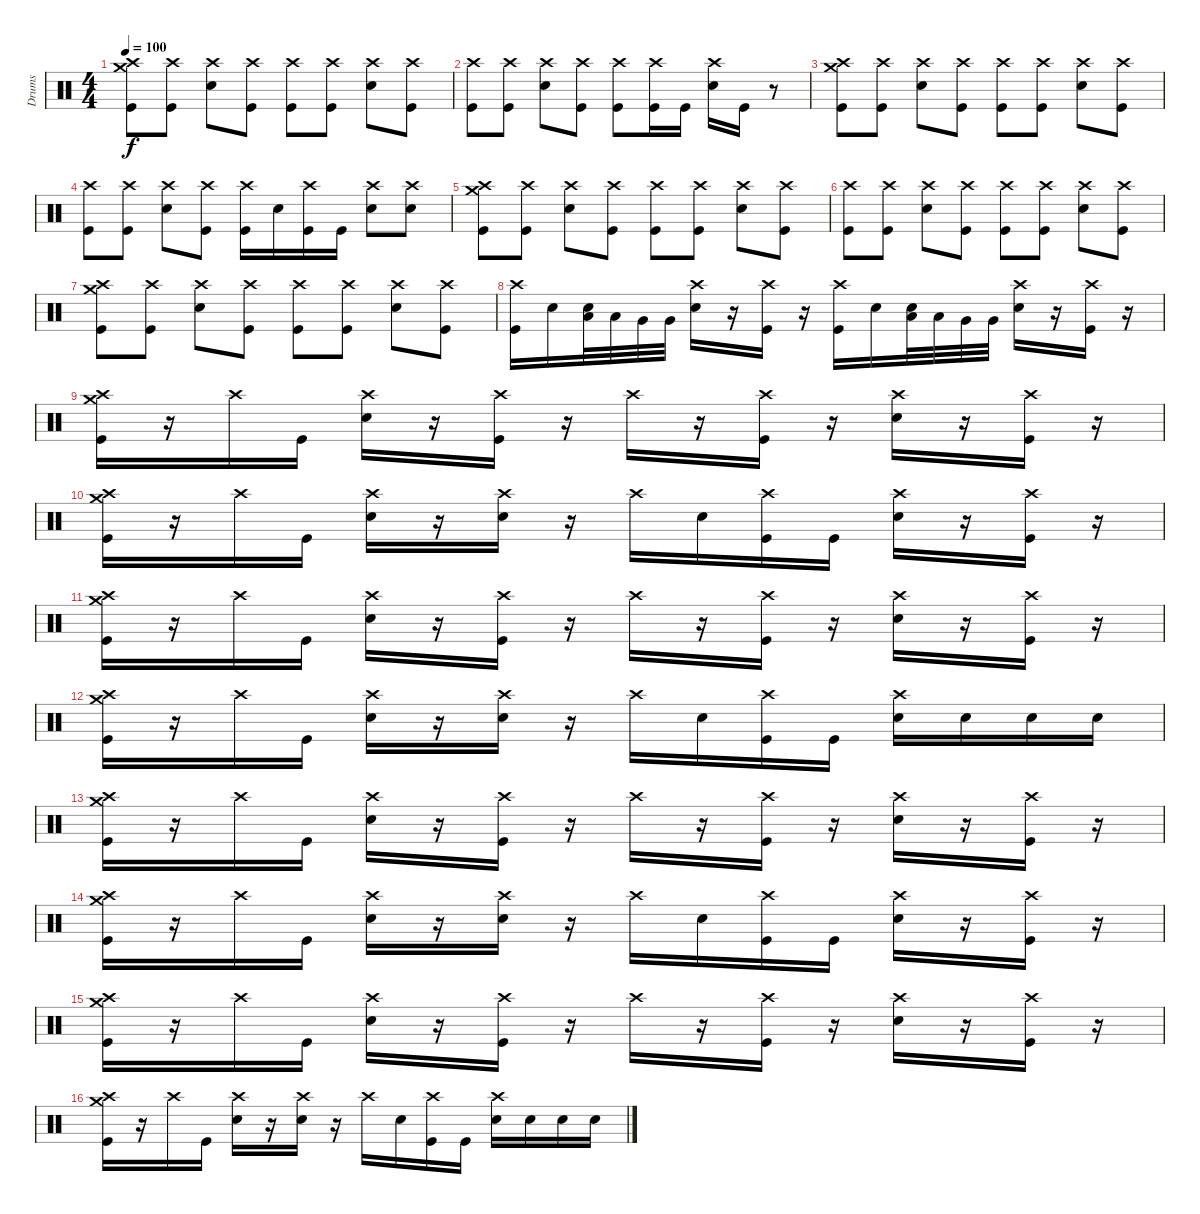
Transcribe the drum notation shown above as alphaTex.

\track ("Drums" "Drums") {instrument percussion}
\staff {score}
\articulation defaults
\ts (4 4)
\tempo 100
\clef neutral
\ks c
("Crash medium (hit)" "Crash high (hit)" "Kick (hit)").8{dy f} ("Crash high (hit)" "Kick (hit)").8 ("Crash high (hit)" "Snare (hit) 2").8 ("Crash high (hit)" "Kick (hit)").8 ("Crash high (hit)" "Kick (hit)").8 ("Crash high (hit)" "Kick (hit)").8 ("Crash high (hit)" "Snare (hit) 2").8 ("Crash high (hit)" "Kick (hit)").8 |
("Crash high (hit)" "Kick (hit)").8 ("Crash high (hit)" "Kick (hit)").8 ("Crash high (hit)" "Snare (hit) 2").8 ("Crash high (hit)" "Kick (hit)").8 ("Crash high (hit)" "Kick (hit)").8 ("Crash high (hit)" "Kick (hit)").16 "Kick (hit)".16 ("Crash high (hit)" "Snare (hit) 2").16 "Kick (hit)".16 r.8 |
("Crash medium (hit)" "Crash high (hit)" "Kick (hit)").8 ("Crash high (hit)" "Kick (hit)").8 ("Crash high (hit)" "Snare (hit) 2").8 ("Crash high (hit)" "Kick (hit)").8 ("Crash high (hit)" "Kick (hit)").8 ("Crash high (hit)" "Kick (hit)").8 ("Crash high (hit)" "Snare (hit) 2").8 ("Crash high (hit)" "Kick (hit)").8 |
("Crash high (hit)" "Kick (hit)").8 ("Crash high (hit)" "Kick (hit)").8 ("Crash high (hit)" "Snare (hit) 2").8 ("Crash high (hit)" "Kick (hit)").8 ("Crash high (hit)" "Kick (hit)").16 "Snare (hit) 2".16 ("Crash high (hit)" "Kick (hit)").16 "Kick (hit)".16 ("Crash high (hit)" "Snare (hit) 2").8 ("Crash high (hit)" "Snare (hit) 2").8 |
("Crash medium (hit)" "Crash high (hit)" "Kick (hit)").8 ("Crash high (hit)" "Kick (hit)").8 ("Crash high (hit)" "Snare (hit) 2").8 ("Crash high (hit)" "Kick (hit)").8 ("Crash high (hit)" "Kick (hit)").8 ("Crash high (hit)" "Kick (hit)").8 ("Crash high (hit)" "Snare (hit) 2").8 ("Crash high (hit)" "Kick (hit)").8 |
("Crash high (hit)" "Kick (hit)").8 ("Crash high (hit)" "Kick (hit)").8 ("Crash high (hit)" "Snare (hit) 2").8 ("Crash high (hit)" "Kick (hit)").8 ("Crash high (hit)" "Kick (hit)").8 ("Crash high (hit)" "Kick (hit)").8 ("Crash high (hit)" "Snare (hit) 2").8 ("Crash high (hit)" "Kick (hit)").8 |
("Crash medium (hit)" "Crash high (hit)" "Kick (hit)").8 ("Crash high (hit)" "Kick (hit)").8 ("Crash high (hit)" "Snare (hit) 2").8 ("Crash high (hit)" "Kick (hit)").8 ("Crash high (hit)" "Kick (hit)").8 ("Crash high (hit)" "Kick (hit)").8 ("Crash high (hit)" "Snare (hit) 2").8 ("Crash high (hit)" "Kick (hit)").8 |
("Crash high (hit)" "Kick (hit)").16 "Snare (hit) 2".16 ("Low Tom (hit)" "Snare (hit) 2").32 "Low Tom (hit)".32 "Very Low Tom (hit)".32 "Very Low Tom (hit)".32 ("Crash high (hit)" "Snare (hit) 2").16 r.16 ("Crash high (hit)" "Kick (hit)").16 r.16 ("Crash high (hit)" "Kick (hit)").16 "Snare (hit) 2".16 ("Low Tom (hit)" "Snare (hit) 2").32 "Low Tom (hit)".32 "Very Low Tom (hit)".32 "Very Low Tom (hit)".32 ("Crash high (hit)" "Snare (hit) 2").16 r.16 ("Crash high (hit)" "Kick (hit)").16 r.16 |
("Crash medium (hit)" "Crash high (hit)" "Kick (hit)").16 r.16 "Crash high (hit)".16 "Kick (hit)".16 ("Crash high (hit)" "Snare (hit) 2").16 r.16 ("Crash high (hit)" "Kick (hit)").16 r.16 "Crash high (hit)".16 r.16 ("Crash high (hit)" "Kick (hit)").16 r.16 ("Crash high (hit)" "Snare (hit) 2").16 r.16 ("Crash high (hit)" "Kick (hit)").16 r.16 |
("Crash medium (hit)" "Crash high (hit)" "Kick (hit)").16 r.16 "Crash high (hit)".16 "Kick (hit)".16 ("Crash high (hit)" "Snare (hit) 2").16 r.16 ("Crash high (hit)" "Snare (hit) 2").16 r.16 "Crash high (hit)".16 "Snare (hit) 2".16 ("Crash high (hit)" "Kick (hit)").16 "Kick (hit)".16 ("Crash high (hit)" "Snare (hit) 2").16 r.16 ("Crash high (hit)" "Kick (hit)").16 r.16 |
("Crash medium (hit)" "Crash high (hit)" "Kick (hit)").16 r.16 "Crash high (hit)".16 "Kick (hit)".16 ("Crash high (hit)" "Snare (hit) 2").16 r.16 ("Crash high (hit)" "Kick (hit)").16 r.16 "Crash high (hit)".16 r.16 ("Crash high (hit)" "Kick (hit)").16 r.16 ("Crash high (hit)" "Snare (hit) 2").16 r.16 ("Crash high (hit)" "Kick (hit)").16 r.16 |
("Crash medium (hit)" "Crash high (hit)" "Kick (hit)").16 r.16 "Crash high (hit)".16 "Kick (hit)".16 ("Crash high (hit)" "Snare (hit) 2").16 r.16 ("Crash high (hit)" "Snare (hit) 2").16 r.16 "Crash high (hit)".16 "Snare (hit) 2".16 ("Crash high (hit)" "Kick (hit)").16 "Kick (hit)".16 ("Crash high (hit)" "Snare (hit) 2").16 "Snare (hit) 2".16 "Snare (hit) 2".16 "Snare (hit) 2".16 |
("Crash medium (hit)" "Crash high (hit)" "Kick (hit)").16 r.16 "Crash high (hit)".16 "Kick (hit)".16 ("Crash high (hit)" "Snare (hit) 2").16 r.16 ("Crash high (hit)" "Kick (hit)").16 r.16 "Crash high (hit)".16 r.16 ("Crash high (hit)" "Kick (hit)").16 r.16 ("Crash high (hit)" "Snare (hit) 2").16 r.16 ("Crash high (hit)" "Kick (hit)").16 r.16 |
("Crash medium (hit)" "Crash high (hit)" "Kick (hit)").16 r.16 "Crash high (hit)".16 "Kick (hit)".16 ("Crash high (hit)" "Snare (hit) 2").16 r.16 ("Crash high (hit)" "Snare (hit) 2").16 r.16 "Crash high (hit)".16 "Snare (hit) 2".16 ("Crash high (hit)" "Kick (hit)").16 "Kick (hit)".16 ("Crash high (hit)" "Snare (hit) 2").16 r.16 ("Crash high (hit)" "Kick (hit)").16 r.16 |
("Crash medium (hit)" "Crash high (hit)" "Kick (hit)").16 r.16 "Crash high (hit)".16 "Kick (hit)".16 ("Crash high (hit)" "Snare (hit) 2").16 r.16 ("Crash high (hit)" "Kick (hit)").16 r.16 "Crash high (hit)".16 r.16 ("Crash high (hit)" "Kick (hit)").16 r.16 ("Crash high (hit)" "Snare (hit) 2").16 r.16 ("Crash high (hit)" "Kick (hit)").16 r.16 |
("Crash medium (hit)" "Crash high (hit)" "Kick (hit)").16 r.16 "Crash high (hit)".16 "Kick (hit)".16 ("Crash high (hit)" "Snare (hit) 2").16 r.16 ("Crash high (hit)" "Snare (hit) 2").16 r.16 "Crash high (hit)".16 "Snare (hit) 2".16 ("Crash high (hit)" "Kick (hit)").16 "Kick (hit)".16 ("Crash high (hit)" "Snare (hit) 2").16 "Snare (hit) 2".16 "Snare (hit) 2".16 "Snare (hit) 2".16
